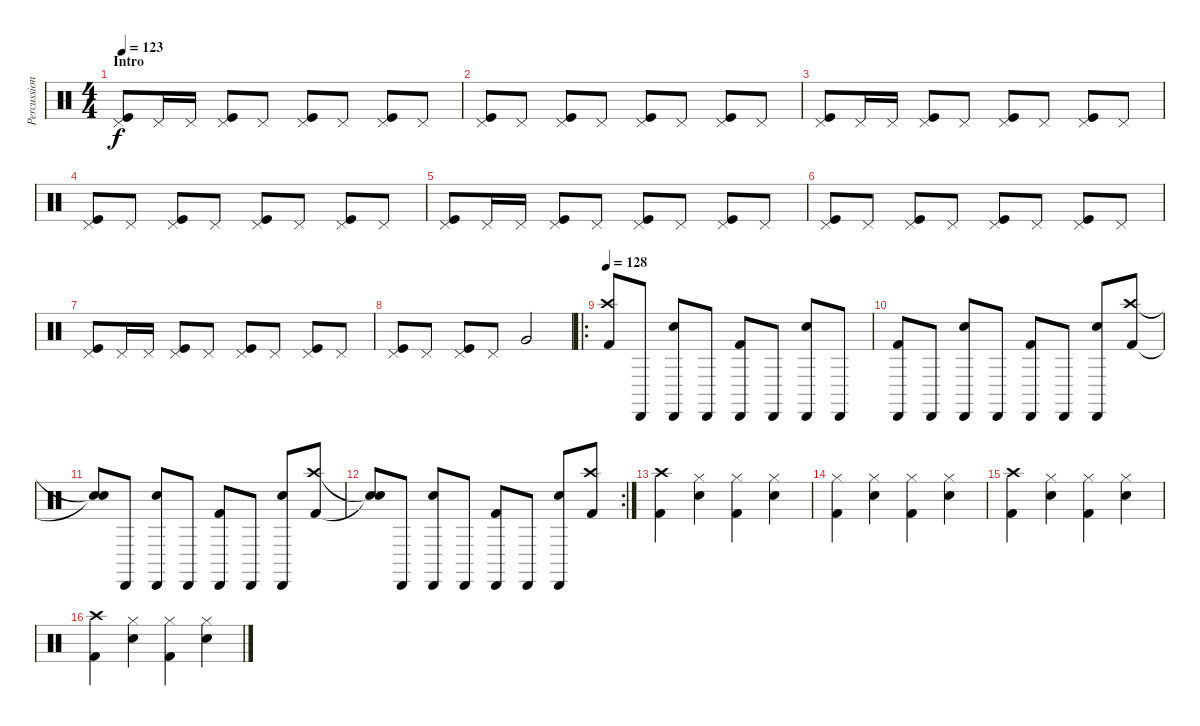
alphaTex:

\track ("Percussion" "Percussion") {instrument percussion}
\staff {score}
\articulation defaults
\ts (4 4)
\section ("" "Intro")
\tempo 123
\clef neutral
\ks c
("Kick (hit)" "Pedal Hi-Hat (hit)").8{dy f} "Pedal Hi-Hat (hit)".16 "Pedal Hi-Hat (hit)".16 ("Kick (hit)" "Pedal Hi-Hat (hit)").8 "Pedal Hi-Hat (hit)".8 ("Kick (hit)" "Pedal Hi-Hat (hit)").8 "Pedal Hi-Hat (hit)".8 ("Kick (hit)" "Pedal Hi-Hat (hit)").8 "Pedal Hi-Hat (hit)".8 |
("Kick (hit)" "Pedal Hi-Hat (hit)").8 "Pedal Hi-Hat (hit)".8 ("Kick (hit)" "Pedal Hi-Hat (hit)").8 "Pedal Hi-Hat (hit)".8 ("Kick (hit)" "Pedal Hi-Hat (hit)").8 "Pedal Hi-Hat (hit)".8 ("Kick (hit)" "Pedal Hi-Hat (hit)").8 "Pedal Hi-Hat (hit)".8 |
("Kick (hit)" "Pedal Hi-Hat (hit)").8 "Pedal Hi-Hat (hit)".16 "Pedal Hi-Hat (hit)".16 ("Kick (hit)" "Pedal Hi-Hat (hit)").8 "Pedal Hi-Hat (hit)".8 ("Kick (hit)" "Pedal Hi-Hat (hit)").8 "Pedal Hi-Hat (hit)".8 ("Kick (hit)" "Pedal Hi-Hat (hit)").8 "Pedal Hi-Hat (hit)".8 |
("Kick (hit)" "Pedal Hi-Hat (hit)").8 "Pedal Hi-Hat (hit)".8 ("Kick (hit)" "Pedal Hi-Hat (hit)").8 "Pedal Hi-Hat (hit)".8 ("Kick (hit)" "Pedal Hi-Hat (hit)").8 "Pedal Hi-Hat (hit)".8 ("Kick (hit)" "Pedal Hi-Hat (hit)").8 "Pedal Hi-Hat (hit)".8 |
("Kick (hit)" "Pedal Hi-Hat (hit)").8 "Pedal Hi-Hat (hit)".16 "Pedal Hi-Hat (hit)".16 ("Kick (hit)" "Pedal Hi-Hat (hit)").8 "Pedal Hi-Hat (hit)".8 ("Kick (hit)" "Pedal Hi-Hat (hit)").8 "Pedal Hi-Hat (hit)".8 ("Kick (hit)" "Pedal Hi-Hat (hit)").8 "Pedal Hi-Hat (hit)".8 |
("Kick (hit)" "Pedal Hi-Hat (hit)").8 "Pedal Hi-Hat (hit)".8 ("Kick (hit)" "Pedal Hi-Hat (hit)").8 "Pedal Hi-Hat (hit)".8 ("Kick (hit)" "Pedal Hi-Hat (hit)").8 "Pedal Hi-Hat (hit)".8 ("Kick (hit)" "Pedal Hi-Hat (hit)").8 "Pedal Hi-Hat (hit)".8 |
("Kick (hit)" "Pedal Hi-Hat (hit)").8 "Pedal Hi-Hat (hit)".16 "Pedal Hi-Hat (hit)".16 ("Kick (hit)" "Pedal Hi-Hat (hit)").8 "Pedal Hi-Hat (hit)".8 ("Kick (hit)" "Pedal Hi-Hat (hit)").8 "Pedal Hi-Hat (hit)".8 ("Kick (hit)" "Pedal Hi-Hat (hit)").8 "Pedal Hi-Hat (hit)".8 |
("Kick (hit)" "Pedal Hi-Hat (hit)").8 "Pedal Hi-Hat (hit)".8 ("Kick (hit)" "Pedal Hi-Hat (hit)").8 "Pedal Hi-Hat (hit)".8 "Very Low Tom (hit)".2 |
\ro
\tempo 128
("Kick (hit) 2" "Crash high (hit)").8 "Cabasa (hit)".8 ("Snare (hit) 2" "Cabasa (hit)").8 "Cabasa (hit)".8 ("Kick (hit) 2" "Cabasa (hit)").8 "Cabasa (hit)".8 ("Snare (hit) 2" "Cabasa (hit)").8 "Cabasa (hit)".8 |
("Kick (hit) 2" "Cabasa (hit)").8 "Cabasa (hit)".8 ("Snare (hit) 2" "Cabasa (hit)").8 "Cabasa (hit)".8 ("Kick (hit) 2" "Cabasa (hit)").8 "Cabasa (hit)".8 ("Snare (hit) 2" "Cabasa (hit)").8 ("Kick (hit) 2" "Crash high (hit)").8 |
("Snare (hit)"{t} "Snare (hit)"{t}).8 "Cabasa (hit)".8 ("Snare (hit) 2" "Cabasa (hit)").8 "Cabasa (hit)".8 ("Kick (hit) 2" "Cabasa (hit)").8 "Cabasa (hit)".8 ("Snare (hit) 2" "Cabasa (hit)").8 ("Kick (hit) 2" "Crash high (hit)").8 |
\rc 2
("Snare (hit)"{t} "Snare (hit)"{t}).8 "Cabasa (hit)".8 ("Snare (hit) 2" "Cabasa (hit)").8 "Cabasa (hit)".8 ("Kick (hit) 2" "Cabasa (hit)").8 "Cabasa (hit)".8 ("Snare (hit) 2" "Cabasa (hit)").8 ("Kick (hit) 2" "Crash high (hit)").8 |
("Kick (hit) 2" "Crash high (hit)").4 ("Snare (hit) 2" "Hi-Hat (closed)").4 ("Kick (hit) 2" "Hi-Hat (closed)").4 ("Snare (hit) 2" "Hi-Hat (closed)").4 |
("Kick (hit) 2" "Hi-Hat (closed)").4 ("Snare (hit) 2" "Hi-Hat (closed)").4 ("Kick (hit) 2" "Hi-Hat (closed)").4 ("Snare (hit) 2" "Hi-Hat (closed)").4 |
("Kick (hit) 2" "Crash high (hit)").4 ("Snare (hit) 2" "Hi-Hat (closed)").4 ("Kick (hit) 2" "Hi-Hat (closed)").4 ("Snare (hit) 2" "Hi-Hat (closed)").4 |
("Kick (hit) 2" "Crash high (hit)").4 ("Snare (hit) 2" "Hi-Hat (closed)").4 ("Kick (hit) 2" "Hi-Hat (closed)").4 ("Snare (hit) 2" "Hi-Hat (closed)").4
